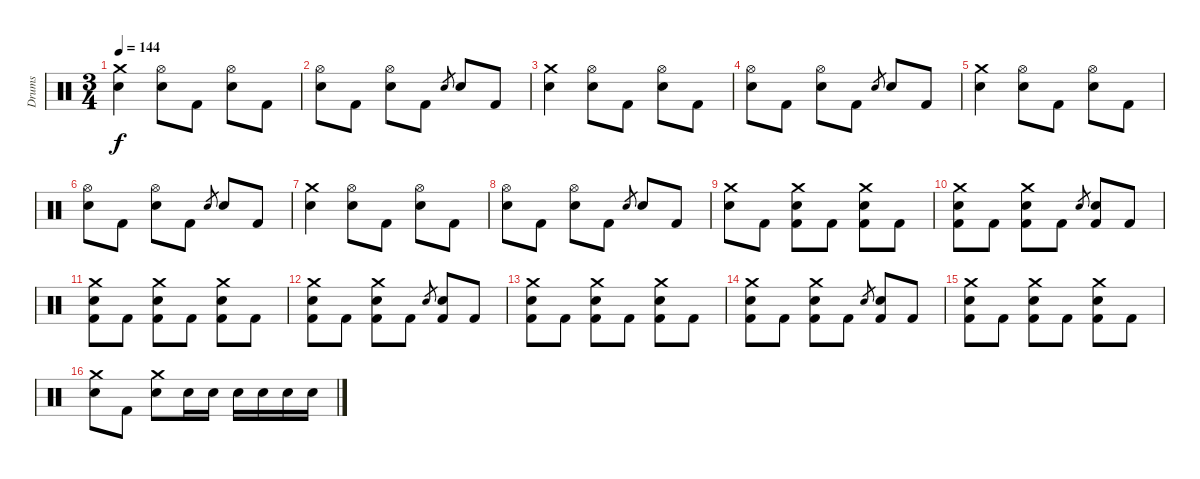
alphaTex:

\track ("Drums" "Drums") {instrument percussion}
\staff {score}
\articulation defaults
\ts (3 4)
\tempo 144
\clef neutral
\ks c
("Crash medium (hit)" "Snare (hit) 2").4{dy f} ("Hi-Hat (open)" "Snare (hit) 2").8 "Kick (hit) 2".8 ("Hi-Hat (open)" "Snare (hit) 2").8 "Kick (hit) 2".8 |
("Hi-Hat (open)" "Snare (hit) 2").8 "Kick (hit) 2".8 ("Hi-Hat (open)" "Snare (hit) 2").8 "Kick (hit) 2".8 "Snare (hit) 2".8{gr} "Snare (hit) 2".8 "Kick (hit) 2".8 |
("Crash medium (hit)" "Snare (hit) 2").4 ("Hi-Hat (open)" "Snare (hit) 2").8 "Kick (hit) 2".8 ("Hi-Hat (open)" "Snare (hit) 2").8 "Kick (hit) 2".8 |
("Hi-Hat (open)" "Snare (hit) 2").8 "Kick (hit) 2".8 ("Hi-Hat (open)" "Snare (hit) 2").8 "Kick (hit) 2".8 "Snare (hit) 2".8{gr} "Snare (hit) 2".8 "Kick (hit) 2".8 |
("Crash medium (hit)" "Snare (hit) 2").4 ("Hi-Hat (open)" "Snare (hit) 2").8 "Kick (hit) 2".8 ("Hi-Hat (open)" "Snare (hit) 2").8 "Kick (hit) 2".8 |
("Hi-Hat (open)" "Snare (hit) 2").8 "Kick (hit) 2".8 ("Hi-Hat (open)" "Snare (hit) 2").8 "Kick (hit) 2".8 "Snare (hit) 2".8{gr} "Snare (hit) 2".8 "Kick (hit) 2".8 |
("Crash medium (hit)" "Snare (hit) 2").4 ("Hi-Hat (open)" "Snare (hit) 2").8 "Kick (hit) 2".8 ("Hi-Hat (open)" "Snare (hit) 2").8 "Kick (hit) 2".8 |
("Hi-Hat (open)" "Snare (hit) 2").8 "Kick (hit) 2".8 ("Hi-Hat (open)" "Snare (hit) 2").8 "Kick (hit) 2".8 "Snare (hit) 2".8{gr} "Snare (hit) 2".8 "Kick (hit) 2".8 |
("Crash medium (hit)" "Snare (hit) 2").8 "Kick (hit) 2".8 ("Crash medium (hit)" "Snare (hit) 2" "Kick (hit) 2").8 "Kick (hit) 2".8 ("Crash medium (hit)" "Snare (hit) 2" "Kick (hit) 2").8 "Kick (hit) 2".8 |
("Crash medium (hit)" "Snare (hit) 2" "Kick (hit) 2").8 "Kick (hit) 2".8 ("Crash medium (hit)" "Snare (hit) 2" "Kick (hit) 2").8 "Kick (hit) 2".8 "Snare (hit) 2".8{gr} ("Snare (hit) 2" "Kick (hit) 2").8 "Kick (hit) 2".8 |
("Crash medium (hit)" "Snare (hit) 2" "Kick (hit) 2").8 "Kick (hit) 2".8 ("Crash medium (hit)" "Snare (hit) 2" "Kick (hit) 2").8 "Kick (hit) 2".8 ("Crash medium (hit)" "Snare (hit) 2" "Kick (hit) 2").8 "Kick (hit) 2".8 |
("Crash medium (hit)" "Snare (hit) 2" "Kick (hit) 2").8 "Kick (hit) 2".8 ("Crash medium (hit)" "Snare (hit) 2" "Kick (hit) 2").8 "Kick (hit) 2".8 "Snare (hit) 2".8{gr} ("Snare (hit) 2" "Kick (hit) 2").8 "Kick (hit) 2".8 |
("Crash medium (hit)" "Snare (hit) 2" "Kick (hit) 2").8 "Kick (hit) 2".8 ("Crash medium (hit)" "Snare (hit) 2" "Kick (hit) 2").8 "Kick (hit) 2".8 ("Crash medium (hit)" "Snare (hit) 2" "Kick (hit) 2").8 "Kick (hit) 2".8 |
("Crash medium (hit)" "Snare (hit) 2" "Kick (hit) 2").8 "Kick (hit) 2".8 ("Crash medium (hit)" "Snare (hit) 2" "Kick (hit) 2").8 "Kick (hit) 2".8 "Snare (hit) 2".8{gr} ("Snare (hit) 2" "Kick (hit) 2").8 "Kick (hit) 2".8 |
("Crash medium (hit)" "Snare (hit) 2" "Kick (hit) 2").8 "Kick (hit) 2".8 ("Crash medium (hit)" "Snare (hit) 2" "Kick (hit) 2").8 "Kick (hit) 2".8 ("Crash medium (hit)" "Snare (hit) 2" "Kick (hit) 2").8 "Kick (hit) 2".8 |
("Crash medium (hit)" "Snare (hit) 2").8 "Kick (hit) 2".8 ("Crash medium (hit)" "Snare (hit) 2").8 "Snare (hit) 2".16 "Snare (hit) 2".16 "Snare (hit) 2".16 "Snare (hit) 2".16 "Snare (hit) 2".16 "Snare (hit) 2".16
